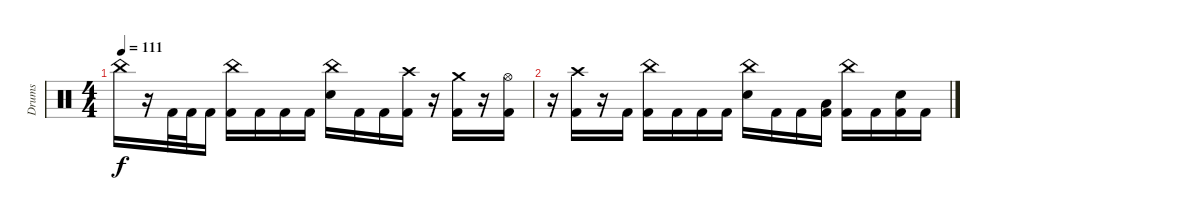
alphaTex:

\track ("Drums" "Drums") {instrument percussion}
\staff {score}
\articulation defaults
\ts (4 4)
\tempo 111
\clef neutral
\ks c "China (hit)".16{dy f}
r.16 "Kick (hit) 2".32 "Kick (hit) 2".32 "Kick (hit) 2".16 ("China (hit)" "Kick (hit) 2").16 "Kick (hit) 2".16 "Kick (hit) 2".16 "Kick (hit) 2".16 ("China (hit)" "Electric Snare (hit)").16 "Kick (hit) 2".16 "Kick (hit) 2".16 ("Crash high (hit)" "Kick (hit) 2").16 r.16 ("Crash medium (hit)" "Kick (hit) 2").16 r.16 ("Hi-Hat (open)" "Kick (hit) 2").16 |
r.16 ("Crash high (hit)" "Kick (hit) 2").16 r.16 "Kick (hit) 2".16 ("China (hit)" "Kick (hit) 2").16 "Kick (hit) 2".16 "Kick (hit) 2".16 "Kick (hit) 2".16 ("China (hit)" "Electric Snare (hit)").16 "Kick (hit) 2".16 "Kick (hit) 2".16 ("Low Tom (hit)" "Kick (hit) 2").16 ("China (hit)" "Kick (hit) 2").16 "Kick (hit) 2".16 ("Electric Snare (hit)" "Kick (hit) 2").16 "Kick (hit) 2".16
